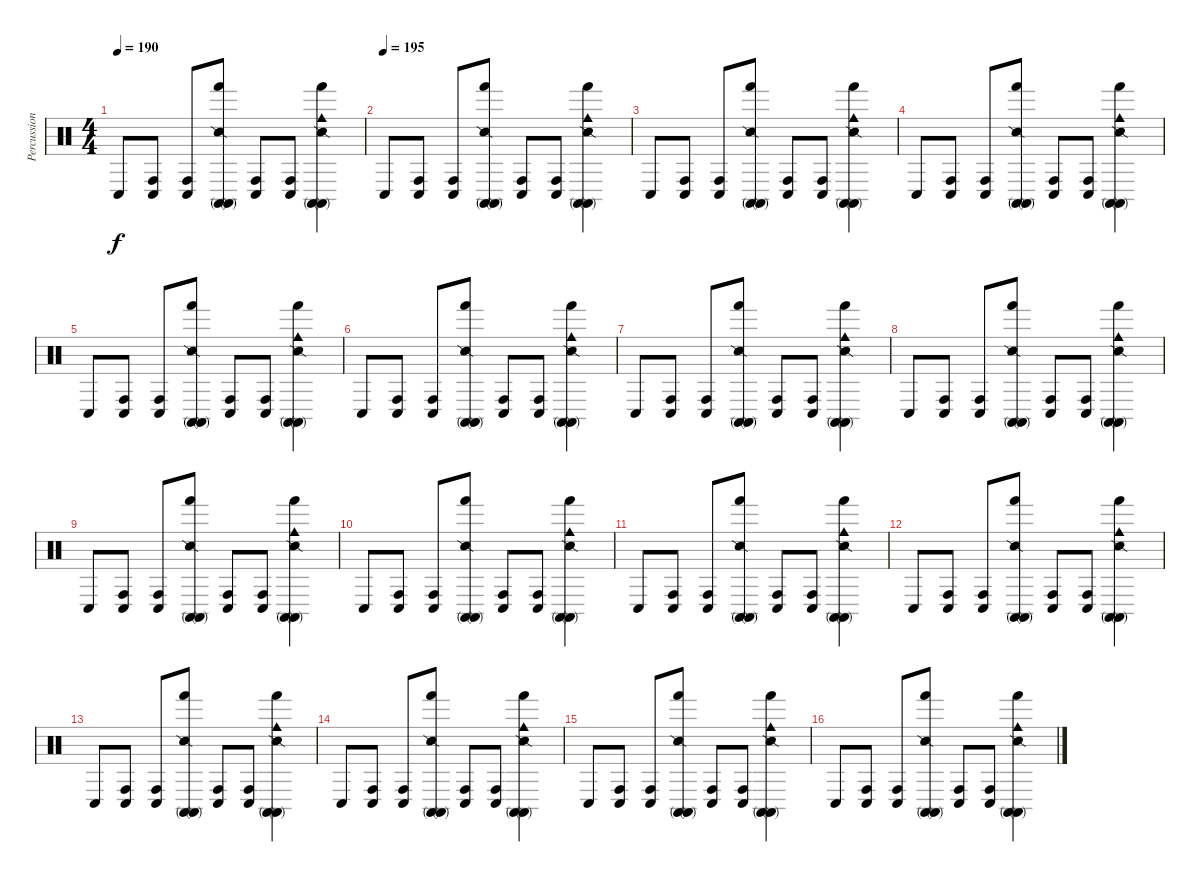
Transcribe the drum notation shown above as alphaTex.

\track ("Percussion" "Percussion") {instrument percussion}
\staff {score}
\articulation defaults
\ts (4 4)
\tempo 190
\clef neutral
\ks c "Conga low (hit)".8{dy f}
("Conga high (hit)" "Conga low (hit)").8 ("Conga high (hit)" "Conga low (hit)").8 ("Snare (side stick) 2" "Hand (hit)" "Conga high (mute)" "Conga high (mute)").8 ("Conga high (hit)" "Conga low (hit)").8 ("Conga high (hit)" "Conga low (hit)").8 ("Snare (side stick) 2" "Hand (hit)" "Cowbell medium (hit)" "Conga high (mute)" "Conga high (mute)").4 |
\tempo (195)
"Conga low (hit)".8 ("Conga high (hit)" "Conga low (hit)").8 ("Conga high (hit)" "Conga low (hit)").8 ("Snare (side stick) 2" "Hand (hit)" "Conga high (mute)" "Conga high (mute)").8 ("Conga high (hit)" "Conga low (hit)").8 ("Conga high (hit)" "Conga low (hit)").8 ("Snare (side stick) 2" "Hand (hit)" "Cowbell medium (hit)" "Conga high (mute)" "Conga high (mute)").4 |
"Conga low (hit)".8 ("Conga high (hit)" "Conga low (hit)").8 ("Conga high (hit)" "Conga low (hit)").8 ("Snare (side stick) 2" "Hand (hit)" "Conga high (mute)" "Conga high (mute)").8 ("Conga high (hit)" "Conga low (hit)").8 ("Conga high (hit)" "Conga low (hit)").8 ("Snare (side stick) 2" "Hand (hit)" "Cowbell medium (hit)" "Conga high (mute)" "Conga high (mute)").4 |
"Conga low (hit)".8 ("Conga high (hit)" "Conga low (hit)").8 ("Conga high (hit)" "Conga low (hit)").8 ("Snare (side stick) 2" "Hand (hit)" "Conga high (mute)" "Conga high (mute)").8 ("Conga high (hit)" "Conga low (hit)").8 ("Conga high (hit)" "Conga low (hit)").8 ("Snare (side stick) 2" "Hand (hit)" "Cowbell medium (hit)" "Conga high (mute)" "Conga high (mute)").4 |
"Conga low (hit)".8 ("Conga high (hit)" "Conga low (hit)").8 ("Conga high (hit)" "Conga low (hit)").8 ("Snare (side stick) 2" "Hand (hit)" "Conga high (mute)" "Conga high (mute)").8 ("Conga high (hit)" "Conga low (hit)").8 ("Conga high (hit)" "Conga low (hit)").8 ("Snare (side stick) 2" "Hand (hit)" "Cowbell medium (hit)" "Conga high (mute)" "Conga high (mute)").4 |
"Conga low (hit)".8 ("Conga high (hit)" "Conga low (hit)").8 ("Conga high (hit)" "Conga low (hit)").8 ("Snare (side stick) 2" "Hand (hit)" "Conga high (mute)" "Conga high (mute)").8 ("Conga high (hit)" "Conga low (hit)").8 ("Conga high (hit)" "Conga low (hit)").8 ("Snare (side stick) 2" "Hand (hit)" "Cowbell medium (hit)" "Conga high (mute)" "Conga high (mute)").4 |
"Conga low (hit)".8 ("Conga high (hit)" "Conga low (hit)").8 ("Conga high (hit)" "Conga low (hit)").8 ("Snare (side stick) 2" "Hand (hit)" "Conga high (mute)" "Conga high (mute)").8 ("Conga high (hit)" "Conga low (hit)").8 ("Conga high (hit)" "Conga low (hit)").8 ("Snare (side stick) 2" "Hand (hit)" "Cowbell medium (hit)" "Conga high (mute)" "Conga high (mute)").4 |
"Conga low (hit)".8 ("Conga high (hit)" "Conga low (hit)").8 ("Conga high (hit)" "Conga low (hit)").8 ("Snare (side stick) 2" "Hand (hit)" "Conga high (mute)" "Conga high (mute)").8 ("Conga high (hit)" "Conga low (hit)").8 ("Conga high (hit)" "Conga low (hit)").8 ("Snare (side stick) 2" "Hand (hit)" "Cowbell medium (hit)" "Conga high (mute)" "Conga high (mute)").4 |
"Conga low (hit)".8 ("Conga high (hit)" "Conga low (hit)").8 ("Conga high (hit)" "Conga low (hit)").8 ("Snare (side stick) 2" "Hand (hit)" "Conga high (mute)" "Conga high (mute)").8 ("Conga high (hit)" "Conga low (hit)").8 ("Conga high (hit)" "Conga low (hit)").8 ("Snare (side stick) 2" "Hand (hit)" "Cowbell medium (hit)" "Conga high (mute)" "Conga high (mute)").4 |
"Conga low (hit)".8 ("Conga high (hit)" "Conga low (hit)").8 ("Conga high (hit)" "Conga low (hit)").8 ("Snare (side stick) 2" "Hand (hit)" "Conga high (mute)" "Conga high (mute)").8 ("Conga high (hit)" "Conga low (hit)").8 ("Conga high (hit)" "Conga low (hit)").8 ("Snare (side stick) 2" "Hand (hit)" "Cowbell medium (hit)" "Conga high (mute)" "Conga high (mute)").4 |
"Conga low (hit)".8 ("Conga high (hit)" "Conga low (hit)").8 ("Conga high (hit)" "Conga low (hit)").8 ("Snare (side stick) 2" "Hand (hit)" "Conga high (mute)" "Conga high (mute)").8 ("Conga high (hit)" "Conga low (hit)").8 ("Conga high (hit)" "Conga low (hit)").8 ("Snare (side stick) 2" "Hand (hit)" "Cowbell medium (hit)" "Conga high (mute)" "Conga high (mute)").4 |
"Conga low (hit)".8 ("Conga high (hit)" "Conga low (hit)").8 ("Conga high (hit)" "Conga low (hit)").8 ("Snare (side stick) 2" "Hand (hit)" "Conga high (mute)" "Conga high (mute)").8 ("Conga high (hit)" "Conga low (hit)").8 ("Conga high (hit)" "Conga low (hit)").8 ("Snare (side stick) 2" "Hand (hit)" "Cowbell medium (hit)" "Conga high (mute)" "Conga high (mute)").4 |
"Conga low (hit)".8 ("Conga high (hit)" "Conga low (hit)").8 ("Conga high (hit)" "Conga low (hit)").8 ("Snare (side stick) 2" "Hand (hit)" "Conga high (mute)" "Conga high (mute)").8 ("Conga high (hit)" "Conga low (hit)").8 ("Conga high (hit)" "Conga low (hit)").8 ("Snare (side stick) 2" "Hand (hit)" "Cowbell medium (hit)" "Conga high (mute)" "Conga high (mute)").4 |
"Conga low (hit)".8 ("Conga high (hit)" "Conga low (hit)").8 ("Conga high (hit)" "Conga low (hit)").8 ("Snare (side stick) 2" "Hand (hit)" "Conga high (mute)" "Conga high (mute)").8 ("Conga high (hit)" "Conga low (hit)").8 ("Conga high (hit)" "Conga low (hit)").8 ("Snare (side stick) 2" "Hand (hit)" "Cowbell medium (hit)" "Conga high (mute)" "Conga high (mute)").4 |
"Conga low (hit)".8 ("Conga high (hit)" "Conga low (hit)").8 ("Conga high (hit)" "Conga low (hit)").8 ("Snare (side stick) 2" "Hand (hit)" "Conga high (mute)" "Conga high (mute)").8 ("Conga high (hit)" "Conga low (hit)").8 ("Conga high (hit)" "Conga low (hit)").8 ("Snare (side stick) 2" "Hand (hit)" "Cowbell medium (hit)" "Conga high (mute)" "Conga high (mute)").4 |
"Conga low (hit)".8 ("Conga high (hit)" "Conga low (hit)").8 ("Conga high (hit)" "Conga low (hit)").8 ("Snare (side stick) 2" "Hand (hit)" "Conga high (mute)" "Conga high (mute)").8 ("Conga high (hit)" "Conga low (hit)").8 ("Conga high (hit)" "Conga low (hit)").8 ("Snare (side stick) 2" "Hand (hit)" "Cowbell medium (hit)" "Conga high (mute)" "Conga high (mute)").4
